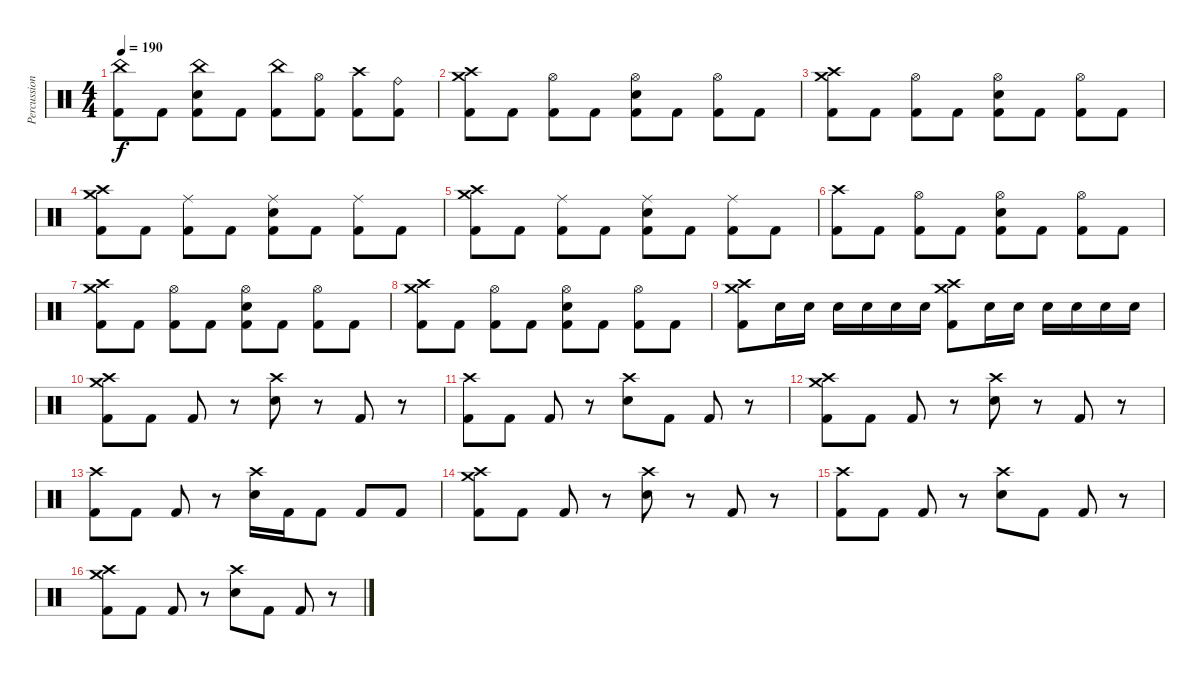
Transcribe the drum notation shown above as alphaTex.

\track ("Percussion" "Percussion") {instrument percussion}
\staff {score}
\articulation defaults
\ts (4 4)
\tempo 190
\clef neutral
\ks c
("China (hit)" "Kick (hit) 2").8{dy f} "Kick (hit) 2".8 ("China (hit)" "Electric Snare (hit)" "Kick (hit) 2").8 "Kick (hit) 2".8 ("China (hit)" "Kick (hit) 2").8 ("Hi-Hat (open)" "Kick (hit) 2").8 ("Crash high (hit)" "Kick (hit) 2").8 ("Ride (bell)" "Kick (hit) 2").8 |
("Crash high (hit)" "Crash medium (hit)" "Kick (hit) 2").8 "Kick (hit) 2".8 ("Hi-Hat (open)" "Kick (hit) 2").8 "Kick (hit) 2".8 ("Hi-Hat (open)" "Electric Snare (hit)" "Kick (hit) 2").8 "Kick (hit) 2".8 ("Hi-Hat (open)" "Kick (hit) 2").8 "Kick (hit) 2".8 |
("Crash high (hit)" "Crash medium (hit)" "Kick (hit) 2").8 "Kick (hit) 2".8 ("Hi-Hat (open)" "Kick (hit) 2").8 "Kick (hit) 2".8 ("Hi-Hat (open)" "Electric Snare (hit)" "Kick (hit) 2").8 "Kick (hit) 2".8 ("Hi-Hat (open)" "Kick (hit) 2").8 "Kick (hit) 2".8 |
("Crash high (hit)" "Crash medium (hit)" "Kick (hit) 2").8 "Kick (hit) 2".8 ("Ride (middle)" "Kick (hit) 2").8 "Kick (hit) 2".8 ("Ride (middle)" "Electric Snare (hit)" "Kick (hit) 2").8 "Kick (hit) 2".8 ("Ride (middle)" "Kick (hit) 2").8 "Kick (hit) 2".8 |
("Crash high (hit)" "Crash medium (hit)" "Kick (hit) 2").8 "Kick (hit) 2".8 ("Ride (middle)" "Kick (hit) 2").8 "Kick (hit) 2".8 ("Ride (middle)" "Electric Snare (hit)" "Kick (hit) 2").8 "Kick (hit) 2".8 ("Ride (middle)" "Kick (hit) 2").8 "Kick (hit) 2".8 |
("Crash high (hit)" "Kick (hit) 2").8 "Kick (hit) 2".8 ("Hi-Hat (open)" "Kick (hit) 2").8 "Kick (hit) 2".8 ("Hi-Hat (open)" "Electric Snare (hit)" "Kick (hit) 2").8 "Kick (hit) 2".8 ("Hi-Hat (open)" "Kick (hit) 2").8 "Kick (hit) 2".8 |
("Crash high (hit)" "Crash medium (hit)" "Kick (hit) 2").8 "Kick (hit) 2".8 ("Hi-Hat (open)" "Kick (hit) 2").8 "Kick (hit) 2".8 ("Hi-Hat (open)" "Electric Snare (hit)" "Kick (hit) 2").8 "Kick (hit) 2".8 ("Hi-Hat (open)" "Kick (hit) 2").8 "Kick (hit) 2".8 |
("Crash high (hit)" "Crash medium (hit)" "Kick (hit) 2").8 "Kick (hit) 2".8 ("Hi-Hat (open)" "Kick (hit) 2").8 "Kick (hit) 2".8 ("Hi-Hat (open)" "Electric Snare (hit)" "Kick (hit) 2").8 "Kick (hit) 2".8 ("Hi-Hat (open)" "Kick (hit) 2").8 "Kick (hit) 2".8 |
("Crash high (hit)" "Crash medium (hit)" "Kick (hit) 2").8 "Electric Snare (hit)".16 "Electric Snare (hit)".16 "Electric Snare (hit)".16 "Electric Snare (hit)".16 "Electric Snare (hit)".16 "Electric Snare (hit)".16 ("Crash high (hit)" "Crash medium (hit)" "Kick (hit) 2").8 "Electric Snare (hit)".16 "Electric Snare (hit)".16 "Electric Snare (hit)".16 "Electric Snare (hit)".16 "Electric Snare (hit)".16 "Electric Snare (hit)".16 |
("Crash high (hit)" "Crash medium (hit)" "Kick (hit) 2").8 "Kick (hit) 2".8 "Kick (hit) 2".8 r.8 ("Crash high (hit)" "Electric Snare (hit)").8 r.8 "Kick (hit) 2".8 r.8 |
("Crash high (hit)" "Kick (hit) 2").8 "Kick (hit) 2".8 "Kick (hit) 2".8 r.8 ("Crash high (hit)" "Electric Snare (hit)").8 "Kick (hit) 2".8 "Kick (hit) 2".8 r.8 |
("Crash high (hit)" "Crash medium (hit)" "Kick (hit) 2").8 "Kick (hit) 2".8 "Kick (hit) 2".8 r.8 ("Crash high (hit)" "Electric Snare (hit)").8 r.8 "Kick (hit) 2".8 r.8 |
("Crash high (hit)" "Kick (hit) 2").8 "Kick (hit) 2".8 "Kick (hit) 2".8 r.8 ("Crash high (hit)" "Electric Snare (hit)").16 "Kick (hit) 2".16 "Kick (hit) 2".8 "Kick (hit) 2".8 "Kick (hit) 2".8 |
("Crash high (hit)" "Crash medium (hit)" "Kick (hit) 2").8 "Kick (hit) 2".8 "Kick (hit) 2".8 r.8 ("Crash high (hit)" "Electric Snare (hit)").8 r.8 "Kick (hit) 2".8 r.8 |
("Crash high (hit)" "Kick (hit) 2").8 "Kick (hit) 2".8 "Kick (hit) 2".8 r.8 ("Crash high (hit)" "Electric Snare (hit)").8 "Kick (hit) 2".8 "Kick (hit) 2".8 r.8 |
("Crash high (hit)" "Crash medium (hit)" "Kick (hit) 2").8 "Kick (hit) 2".8 "Kick (hit) 2".8 r.8 ("Crash high (hit)" "Electric Snare (hit)").8 "Kick (hit) 2".8 "Kick (hit) 2".8 r.8
